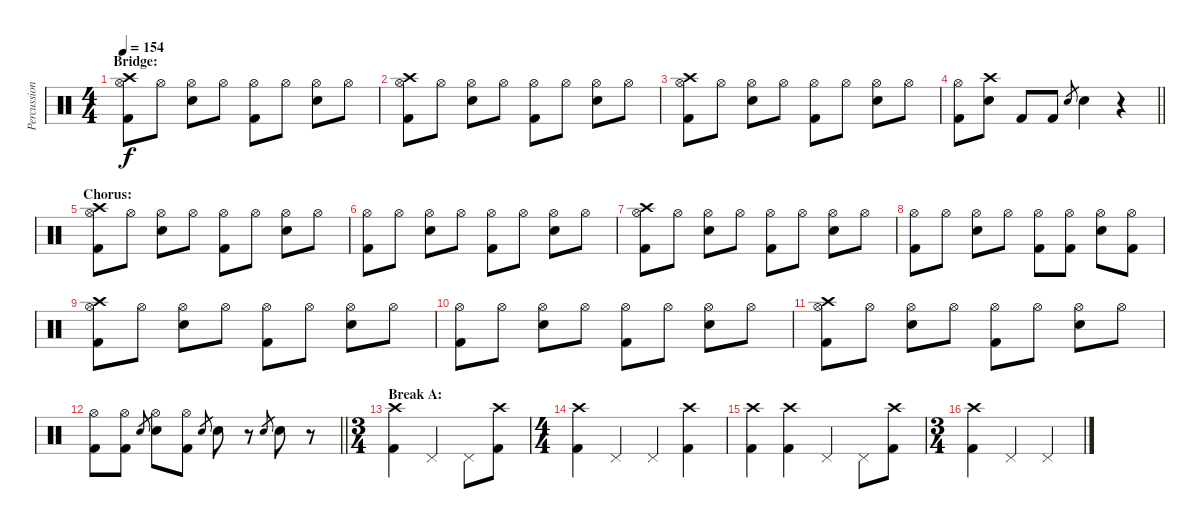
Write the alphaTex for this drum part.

\track ("Percussion" "Percussion") {instrument percussion}
\staff {score}
\articulation defaults
\ts (4 4)
\section ("" "Bridge:")
\tempo 154
\clef neutral
\ks c
("Hi-Hat (open)" "Crash high (hit)" "Kick (hit) 2").8{dy f} "Hi-Hat (open)".8 ("Hi-Hat (open)" "Snare (hit) 2").8 "Hi-Hat (open)".8 ("Hi-Hat (open)" "Kick (hit) 2").8 "Hi-Hat (open)".8 ("Hi-Hat (open)" "Snare (hit) 2").8 "Hi-Hat (open)".8 |
("Hi-Hat (open)" "Crash high (hit)" "Kick (hit) 2").8 "Hi-Hat (open)".8 ("Hi-Hat (open)" "Snare (hit) 2").8 "Hi-Hat (open)".8 ("Hi-Hat (open)" "Kick (hit) 2").8 "Hi-Hat (open)".8 ("Hi-Hat (open)" "Snare (hit) 2").8 "Hi-Hat (open)".8 |
("Hi-Hat (open)" "Crash high (hit)" "Kick (hit) 2").8 "Hi-Hat (open)".8 ("Hi-Hat (open)" "Snare (hit) 2").8 "Hi-Hat (open)".8 ("Hi-Hat (open)" "Kick (hit) 2").8 "Hi-Hat (open)".8 ("Hi-Hat (open)" "Snare (hit) 2").8 "Hi-Hat (open)".8 |
\barLineRight lightlight
("Hi-Hat (open)" "Kick (hit) 2").8 ("Crash high (hit)" "Snare (hit) 2").8 "Kick (hit) 2".8 "Kick (hit) 2".8 "Snare (hit) 2".8{gr} "Snare (hit) 2".4 r.4 |
\section ("" "Chorus:")
("Hi-Hat (open)" "Crash high (hit)" "Kick (hit) 2").8 "Hi-Hat (open)".8 ("Hi-Hat (open)" "Snare (hit) 2").8 "Hi-Hat (open)".8 ("Hi-Hat (open)" "Kick (hit) 2").8 "Hi-Hat (open)".8 ("Hi-Hat (open)" "Snare (hit) 2").8 "Hi-Hat (open)".8 |
("Hi-Hat (open)" "Kick (hit) 2").8 "Hi-Hat (open)".8 ("Hi-Hat (open)" "Snare (hit) 2").8 "Hi-Hat (open)".8 ("Hi-Hat (open)" "Kick (hit) 2").8 "Hi-Hat (open)".8 ("Hi-Hat (open)" "Snare (hit) 2").8 "Hi-Hat (open)".8 |
("Hi-Hat (open)" "Crash high (hit)" "Kick (hit) 2").8 "Hi-Hat (open)".8 ("Hi-Hat (open)" "Snare (hit) 2").8 "Hi-Hat (open)".8 ("Hi-Hat (open)" "Kick (hit) 2").8 "Hi-Hat (open)".8 ("Hi-Hat (open)" "Snare (hit) 2").8 "Hi-Hat (open)".8 |
("Hi-Hat (open)" "Kick (hit) 2").8 "Hi-Hat (open)".8 ("Hi-Hat (open)" "Snare (hit) 2").8 "Hi-Hat (open)".8 ("Hi-Hat (open)" "Kick (hit) 2").8 ("Hi-Hat (open)" "Kick (hit) 2").8 ("Hi-Hat (open)" "Snare (hit) 2").8 ("Hi-Hat (open)" "Kick (hit) 2").8 |
("Hi-Hat (open)" "Crash high (hit)" "Kick (hit) 2").8 "Hi-Hat (open)".8 ("Hi-Hat (open)" "Snare (hit) 2").8 "Hi-Hat (open)".8 ("Hi-Hat (open)" "Kick (hit) 2").8 "Hi-Hat (open)".8 ("Hi-Hat (open)" "Snare (hit) 2").8 "Hi-Hat (open)".8 |
("Hi-Hat (open)" "Kick (hit) 2").8 "Hi-Hat (open)".8 ("Hi-Hat (open)" "Snare (hit) 2").8 "Hi-Hat (open)".8 ("Hi-Hat (open)" "Kick (hit) 2").8 "Hi-Hat (open)".8 ("Hi-Hat (open)" "Snare (hit) 2").8 "Hi-Hat (open)".8 |
("Hi-Hat (open)" "Crash high (hit)" "Kick (hit) 2").8 "Hi-Hat (open)".8 ("Hi-Hat (open)" "Snare (hit) 2").8 "Hi-Hat (open)".8 ("Hi-Hat (open)" "Kick (hit) 2").8 "Hi-Hat (open)".8 ("Hi-Hat (open)" "Snare (hit) 2").8 "Hi-Hat (open)".8 |
\barLineRight lightlight
("Hi-Hat (open)" "Kick (hit) 2").8 ("Hi-Hat (open)" "Kick (hit) 2").8 "Snare (hit) 2".8{gr} ("Hi-Hat (open)" "Snare (hit) 2").8 ("Hi-Hat (open)" "Kick (hit) 2").8 "Snare (hit) 2".8{gr} "Snare (hit) 2".8 r.8 "Snare (hit) 2".8{gr} "Snare (hit) 2".8 r.8 |
\ts (3 4)
\section ("" "Break A:")
("Crash high (hit)" "Kick (hit) 2").4 "Pedal Hi-Hat (hit)".4 "Pedal Hi-Hat (hit)".8 ("Crash high (hit)" "Kick (hit) 2").8 |
\ts (4 4)
("Crash high (hit)" "Kick (hit) 2").4 "Pedal Hi-Hat (hit)".4 "Pedal Hi-Hat (hit)".4 ("Crash high (hit)" "Kick (hit) 2").4 |
("Crash high (hit)" "Kick (hit) 2").4 ("Crash high (hit)" "Kick (hit) 2").4 "Pedal Hi-Hat (hit)".4 "Pedal Hi-Hat (hit)".8 ("Crash high (hit)" "Kick (hit) 2").8 |
\ts (3 4)
("Crash high (hit)" "Kick (hit) 2").4 "Pedal Hi-Hat (hit)".4 "Pedal Hi-Hat (hit)".4
